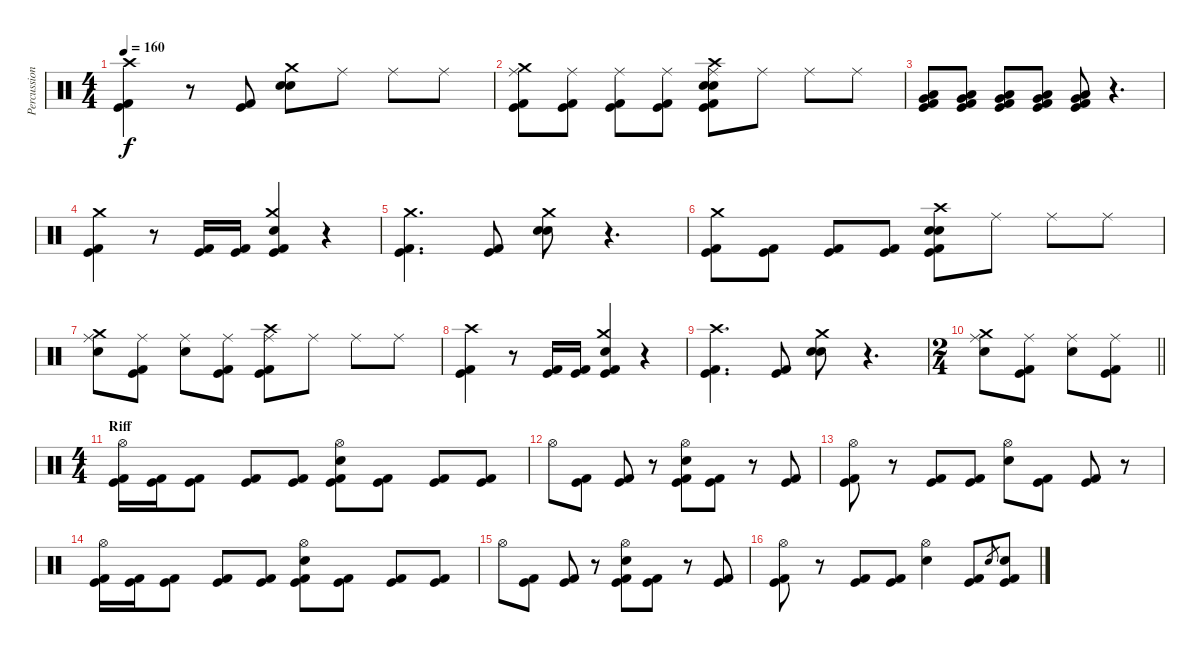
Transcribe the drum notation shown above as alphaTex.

\track ("Percussion" "Percussion") {instrument percussion}
\staff {score}
\articulation defaults
\ts (4 4)
\tempo 160
\clef neutral
\ks c
("Crash high (hit)" "Kick (hit)" "Kick (hit) 2").4{dy f} r.8 ("Kick (hit)" "Kick (hit) 2").8 ("Crash medium (hit)" "Electric Snare (hit)" "Electric Snare (hit)").8 "Ride (middle)".8 "Ride (middle)".8 "Ride (middle)".8 |
("Ride (middle)" "Crash medium (hit)" "Kick (hit)" "Kick (hit) 2").8 ("Ride (middle)" "Kick (hit)" "Kick (hit) 2").8 ("Ride (middle)" "Kick (hit)" "Kick (hit) 2").8 ("Ride (middle)" "Kick (hit)" "Kick (hit) 2").8 ("Crash high (hit)" "Ride (middle)" "Electric Snare (hit)" "Electric Snare (hit)" "Kick (hit)" "Kick (hit) 2").8 "Ride (middle)".8 "Ride (middle)".8 "Ride (middle)".8 |
("Low Floor Tom (hit)" "Very Low Tom (hit)" "Kick (hit)" "Kick (hit) 2").8 ("Low Floor Tom (hit)" "Very Low Tom (hit)" "Kick (hit)" "Kick (hit) 2").8 ("Low Floor Tom (hit)" "Very Low Tom (hit)" "Kick (hit)" "Kick (hit) 2").8 ("Low Floor Tom (hit)" "Very Low Tom (hit)" "Kick (hit)" "Kick (hit) 2").8 ("Low Floor Tom (hit)" "Very Low Tom (hit)" "Kick (hit)" "Kick (hit) 2").8 r.4{d} |
("Crash medium (hit)" "Kick (hit)" "Kick (hit) 2").4 r.8 ("Kick (hit)" "Kick (hit) 2").16 ("Kick (hit)" "Kick (hit) 2").16 ("Crash medium (hit)" "Electric Snare (hit)" "Kick (hit)" "Kick (hit) 2").4 r.4 |
("Crash medium (hit)" "Kick (hit)" "Kick (hit) 2").4{d} ("Kick (hit)" "Kick (hit) 2").8 ("Crash medium (hit)" "Electric Snare (hit)" "Electric Snare (hit)").8 r.4{d} |
("Crash medium (hit)" "Kick (hit)" "Kick (hit) 2").8 ("Kick (hit)" "Kick (hit) 2").8 ("Kick (hit)" "Kick (hit) 2").8 ("Kick (hit)" "Kick (hit) 2").8 ("Crash high (hit)" "Electric Snare (hit)" "Electric Snare (hit)" "Kick (hit)" "Kick (hit) 2").8 "Ride (middle)".8 "Ride (middle)".8 "Ride (middle)".8 |
("Ride (middle)" "Crash medium (hit)" "Electric Snare (hit)").8 ("Ride (middle)" "Kick (hit)" "Kick (hit) 2").8 ("Ride (middle)" "Electric Snare (hit)").8 ("Ride (middle)" "Kick (hit)" "Kick (hit) 2").8 ("Crash high (hit)" "Ride (middle)" "Kick (hit)" "Kick (hit) 2").8 "Ride (middle)".8 "Ride (middle)".8 "Ride (middle)".8 |
("Crash high (hit)" "Kick (hit)" "Kick (hit) 2").4 r.8 ("Kick (hit)" "Kick (hit) 2").16 ("Kick (hit)" "Kick (hit) 2").16 ("Crash medium (hit)" "Electric Snare (hit)" "Kick (hit)" "Kick (hit) 2").4 r.4 |
("Crash high (hit)" "Kick (hit)" "Kick (hit) 2").4{d} ("Kick (hit)" "Kick (hit) 2").8 ("Crash medium (hit)" "Electric Snare (hit)" "Electric Snare (hit)").8 r.4{d} |
\ts (2 4)
\barLineRight lightlight
("Ride (middle)" "Crash medium (hit)" "Electric Snare (hit)").8 ("Ride (middle)" "Kick (hit)" "Kick (hit) 2").8 ("Ride (middle)" "Electric Snare (hit)").8 ("Ride (middle)" "Kick (hit)" "Kick (hit) 2").8 |
\ts (4 4)
\section ("" "Riff")
("Hi-Hat (open)" "Kick (hit)" "Kick (hit) 2").16 ("Kick (hit)" "Kick (hit) 2").16 ("Kick (hit)" "Kick (hit) 2").8 ("Kick (hit)" "Kick (hit) 2").8 ("Kick (hit)" "Kick (hit) 2").8 ("Hi-Hat (open)" "Electric Snare (hit)" "Kick (hit)" "Kick (hit) 2").8 ("Kick (hit)" "Kick (hit) 2").8 ("Kick (hit)" "Kick (hit) 2").8 ("Kick (hit)" "Kick (hit) 2").8 |
"Hi-Hat (open)".8 ("Kick (hit)" "Kick (hit) 2").8 ("Kick (hit)" "Kick (hit) 2").8 r.8 ("Hi-Hat (open)" "Electric Snare (hit)" "Kick (hit)" "Kick (hit) 2").8 ("Kick (hit)" "Kick (hit) 2").8 r.8 ("Kick (hit)" "Kick (hit) 2").8 |
("Hi-Hat (open)" "Kick (hit)" "Kick (hit) 2").8 r.8 ("Kick (hit)" "Kick (hit) 2").8 ("Kick (hit)" "Kick (hit) 2").8 ("Hi-Hat (open)" "Electric Snare (hit)").8 ("Kick (hit)" "Kick (hit) 2").8 ("Kick (hit)" "Kick (hit) 2").8 r.8 |
("Hi-Hat (open)" "Kick (hit)" "Kick (hit) 2").16 ("Kick (hit)" "Kick (hit) 2").16 ("Kick (hit)" "Kick (hit) 2").8 ("Kick (hit)" "Kick (hit) 2").8 ("Kick (hit)" "Kick (hit) 2").8 ("Hi-Hat (open)" "Electric Snare (hit)" "Kick (hit)" "Kick (hit) 2").8 ("Kick (hit)" "Kick (hit) 2").8 ("Kick (hit)" "Kick (hit) 2").8 ("Kick (hit)" "Kick (hit) 2").8 |
"Hi-Hat (open)".8 ("Kick (hit)" "Kick (hit) 2").8 ("Kick (hit)" "Kick (hit) 2").8 r.8 ("Hi-Hat (open)" "Electric Snare (hit)" "Kick (hit)" "Kick (hit) 2").8 ("Kick (hit)" "Kick (hit) 2").8 r.8 ("Kick (hit)" "Kick (hit) 2").8 |
("Hi-Hat (open)" "Kick (hit)" "Kick (hit) 2").8 r.8 ("Kick (hit)" "Kick (hit) 2").8 ("Kick (hit)" "Kick (hit) 2").8 ("Hi-Hat (open)" "Electric Snare (hit)").4 ("Kick (hit)" "Kick (hit) 2").8 "Electric Snare (hit)".8{gr} ("Electric Snare (hit)" "Kick (hit)" "Kick (hit) 2").8
